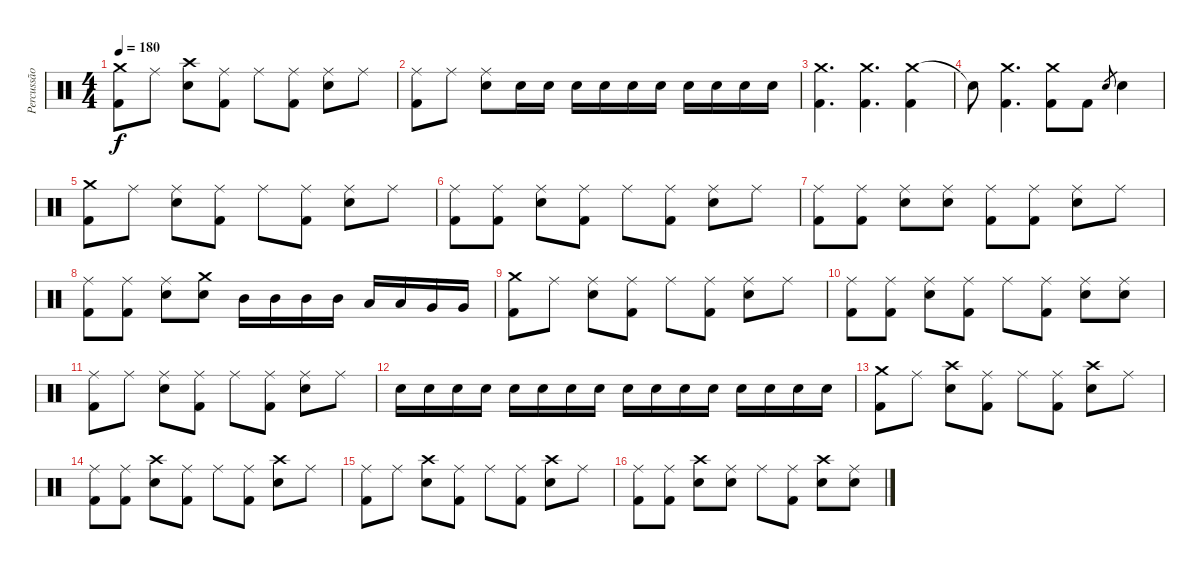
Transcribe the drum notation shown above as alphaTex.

\track ("Percussão" "Percussão") {instrument percussion}
\staff {score}
\articulation defaults
\ts (4 4)
\tempo 180
\clef neutral
\ks c
("Crash medium (hit)" "Kick (hit) 2").8{dy f} "Ride (middle)".8 ("Crash high (hit)" "Electric Snare (hit)").8 ("Ride (middle)" "Kick (hit) 2").8 "Ride (middle)".8 ("Ride (middle)" "Kick (hit) 2").8 ("Ride (middle)" "Electric Snare (hit)").8 "Ride (middle)".8 |
("Ride (middle)" "Kick (hit) 2").8 "Ride (middle)".8 ("Ride (middle)" "Electric Snare (hit)").8 "Electric Snare (hit)".16 "Electric Snare (hit)".16 "Electric Snare (hit)".16 "Electric Snare (hit)".16 "Electric Snare (hit)".16 "Electric Snare (hit)".16 "Electric Snare (hit)".16 "Electric Snare (hit)".16 "Electric Snare (hit)".16 "Electric Snare (hit)".16 |
("Crash medium (hit)" "Kick (hit) 2").4{d} ("Crash medium (hit)" "Kick (hit) 2").4{d} ("Crash medium (hit)" "Kick (hit) 2").4 |
"Snare (hit)"{t}.8 ("Crash medium (hit)" "Kick (hit) 2").4{d} ("Crash medium (hit)" "Kick (hit) 2").8 "Kick (hit) 2".8 "Electric Snare (hit)".8{gr} "Electric Snare (hit)".4 |
("Crash medium (hit)" "Kick (hit) 2").8 "Ride (middle)".8 ("Ride (middle)" "Electric Snare (hit)").8 ("Ride (middle)" "Kick (hit) 2").8 "Ride (middle)".8 ("Ride (middle)" "Kick (hit) 2").8 ("Ride (middle)" "Electric Snare (hit)").8 "Ride (middle)".8 |
("Ride (middle)" "Kick (hit) 2").8 ("Ride (middle)" "Kick (hit) 2").8 ("Ride (middle)" "Electric Snare (hit)").8 ("Ride (middle)" "Kick (hit) 2").8 "Ride (middle)".8 ("Ride (middle)" "Kick (hit) 2").8 ("Ride (middle)" "Electric Snare (hit)").8 "Ride (middle)".8 |
("Ride (middle)" "Kick (hit) 2").8 ("Ride (middle)" "Kick (hit) 2").8 ("Ride (middle)" "Electric Snare (hit)").8 ("Ride (middle)" "Electric Snare (hit)").8 ("Ride (middle)" "Kick (hit) 2").8 ("Ride (middle)" "Kick (hit) 2").8 ("Ride (middle)" "Electric Snare (hit)").8 "Ride (middle)".8 |
("Ride (middle)" "Kick (hit) 2").8 ("Ride (middle)" "Kick (hit) 2").8 ("Ride (middle)" "Electric Snare (hit)").8 ("Crash medium (hit)" "Electric Snare (hit)").8 "Mid Tom (hit)".16 "Mid Tom (hit)".16 "Mid Tom (hit)".16 "Mid Tom (hit)".16 "Low Tom (hit)".16 "Low Tom (hit)".16 "Very Low Tom (hit)".16 "Very Low Tom (hit)".16 |
("Crash medium (hit)" "Kick (hit) 2").8 "Ride (middle)".8 ("Ride (middle)" "Electric Snare (hit)").8 ("Ride (middle)" "Kick (hit) 2").8 "Ride (middle)".8 ("Ride (middle)" "Kick (hit) 2").8 ("Ride (middle)" "Electric Snare (hit)").8 "Ride (middle)".8 |
("Ride (middle)" "Kick (hit) 2").8 ("Ride (middle)" "Kick (hit) 2").8 ("Ride (middle)" "Electric Snare (hit)").8 ("Ride (middle)" "Kick (hit) 2").8 "Ride (middle)".8 ("Ride (middle)" "Kick (hit) 2").8 ("Ride (middle)" "Electric Snare (hit)").8 ("Ride (middle)" "Electric Snare (hit)").8 |
("Ride (middle)" "Kick (hit) 2").8 "Ride (middle)".8 ("Ride (middle)" "Electric Snare (hit)").8 ("Ride (middle)" "Kick (hit) 2").8 "Ride (middle)".8 ("Ride (middle)" "Kick (hit) 2").8 ("Ride (middle)" "Electric Snare (hit)").8 "Ride (middle)".8 |
"Electric Snare (hit)".16 "Electric Snare (hit)".16 "Electric Snare (hit)".16 "Electric Snare (hit)".16 "Electric Snare (hit)".16 "Electric Snare (hit)".16 "Electric Snare (hit)".16 "Electric Snare (hit)".16 "Electric Snare (hit)".16 "Electric Snare (hit)".16 "Electric Snare (hit)".16 "Electric Snare (hit)".16 "Electric Snare (hit)".16 "Electric Snare (hit)".16 "Electric Snare (hit)".16 "Electric Snare (hit)".16 |
("Crash medium (hit)" "Kick (hit) 2").8 "Ride (middle)".8 ("Crash high (hit)" "Electric Snare (hit)").8 ("Ride (middle)" "Kick (hit) 2").8 "Ride (middle)".8 ("Ride (middle)" "Kick (hit) 2").8 ("Crash high (hit)" "Electric Snare (hit)").8 "Ride (middle)".8 |
("Ride (middle)" "Kick (hit) 2").8 ("Ride (middle)" "Kick (hit) 2").8 ("Crash high (hit)" "Electric Snare (hit)").8 ("Ride (middle)" "Kick (hit) 2").8 "Ride (middle)".8 ("Ride (middle)" "Kick (hit) 2").8 ("Crash high (hit)" "Electric Snare (hit)").8 "Ride (middle)".8 |
("Ride (middle)" "Kick (hit) 2").8 "Ride (middle)".8 ("Crash high (hit)" "Electric Snare (hit)").8 ("Ride (middle)" "Kick (hit) 2").8 "Ride (middle)".8 ("Ride (middle)" "Kick (hit) 2").8 ("Crash high (hit)" "Electric Snare (hit)").8 "Ride (middle)".8 |
("Ride (middle)" "Kick (hit) 2").8 ("Ride (middle)" "Kick (hit) 2").8 ("Crash high (hit)" "Electric Snare (hit)").8 ("Ride (middle)" "Electric Snare (hit)").8 "Ride (middle)".8 ("Ride (middle)" "Kick (hit) 2").8 ("Crash high (hit)" "Electric Snare (hit)").8 ("Ride (middle)" "Electric Snare (hit)").8
